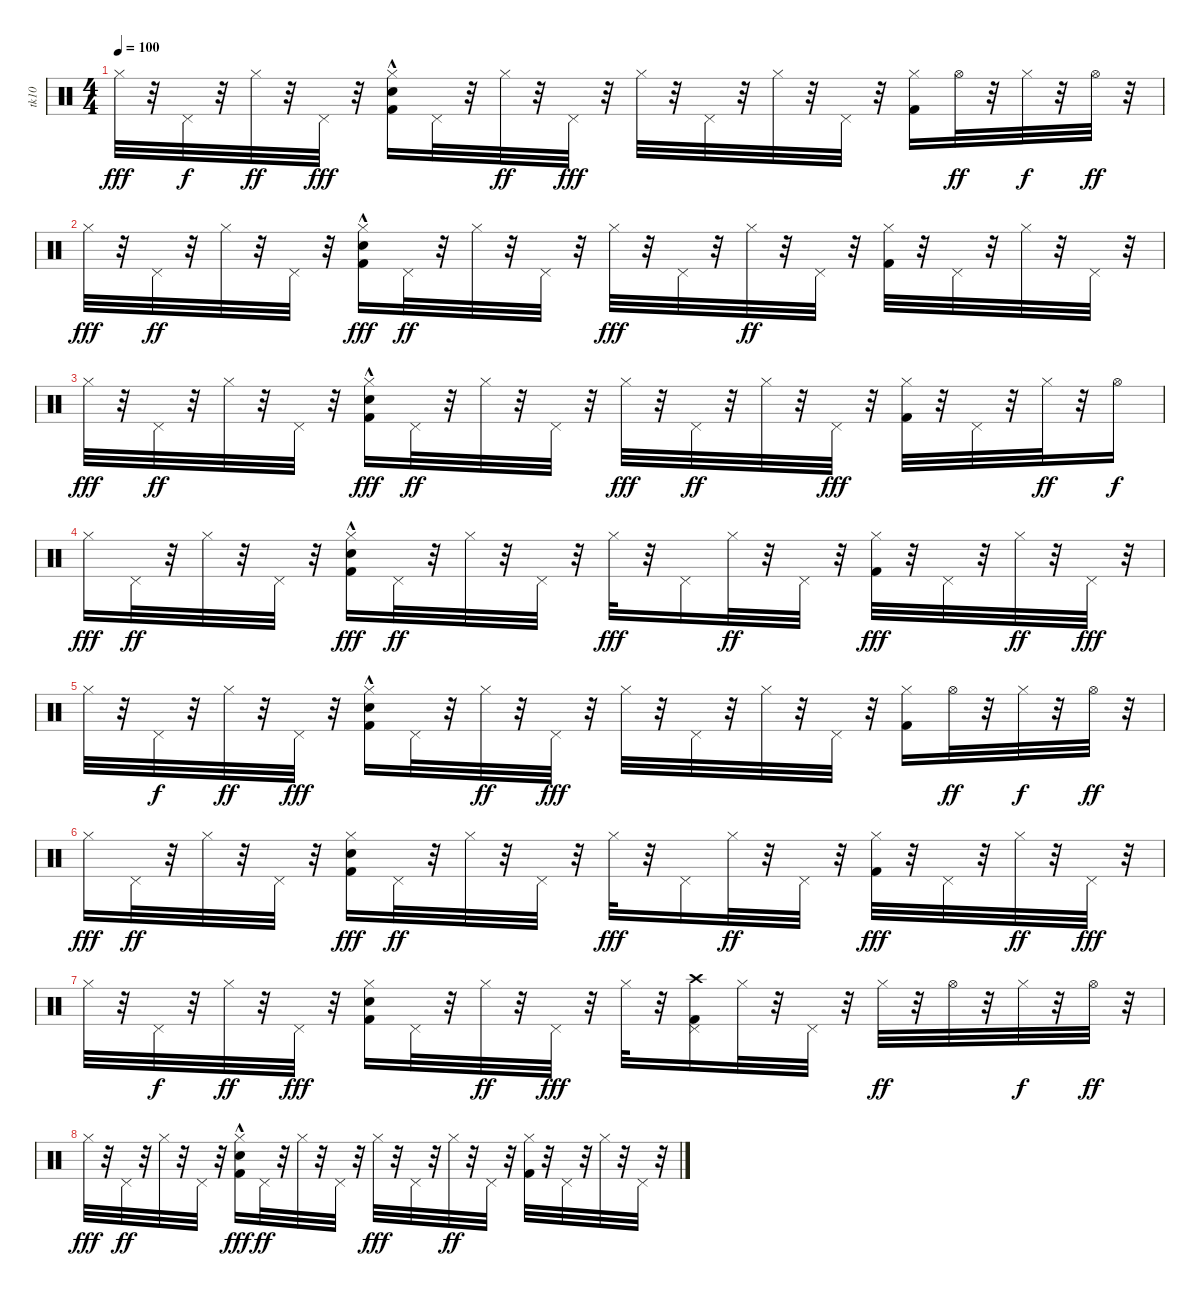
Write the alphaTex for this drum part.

\track ("tk10" "tk10") {instrument percussion}
\staff {score}
\articulation defaults
\ts (4 4)
\tempo 100
\clef neutral
\ks c "Hi-Hat (closed)".32{dy fff}
r.32 "Pedal Hi-Hat (hit)".32{dy f} r.32 "Hi-Hat (closed)".32{dy ff} r.32 "Pedal Hi-Hat (hit)".32{dy fff} r.32 ("Kick (hit) 2" "Hi-Hat (closed)" "Snare (hit) 2"{hac}).16 "Pedal Hi-Hat (hit)".32 r.32 "Hi-Hat (closed)".32{dy ff} r.32 "Pedal Hi-Hat (hit)".32{dy fff} r.32 "Hi-Hat (closed)".32 r.32 "Pedal Hi-Hat (hit)".32 r.32 "Hi-Hat (closed)".32 r.32 "Pedal Hi-Hat (hit)".32 r.32 ("Hi-Hat (closed)" "Kick (hit) 2").16 "Hi-Hat (open)".32{dy ff} r.32 "Hi-Hat (closed)".32{dy f} r.32 "Hi-Hat (open)".32{dy ff} r.32 |
"Hi-Hat (closed)".32{dy fff} r.32 "Pedal Hi-Hat (hit)".32{dy ff} r.32 "Hi-Hat (closed)".32 r.32 "Pedal Hi-Hat (hit)".32 r.32 ("Snare (hit) 2"{hac} "Kick (hit) 2"{hac} "Hi-Hat (closed)").16{dy fff} "Pedal Hi-Hat (hit)".32{dy ff} r.32 "Hi-Hat (closed)".32 r.32 "Pedal Hi-Hat (hit)".32 r.32 "Hi-Hat (closed)".32{dy fff} r.32 "Pedal Hi-Hat (hit)".32 r.32 "Hi-Hat (closed)".32{dy ff} r.32 "Pedal Hi-Hat (hit)".32 r.32 ("Kick (hit) 2" "Hi-Hat (closed)").32 r.32 "Pedal Hi-Hat (hit)".32 r.32 "Hi-Hat (closed)".32 r.32 "Pedal Hi-Hat (hit)".32 r.32 |
"Hi-Hat (closed)".32{dy fff} r.32 "Pedal Hi-Hat (hit)".32{dy ff} r.32 "Hi-Hat (closed)".32 r.32 "Pedal Hi-Hat (hit)".32 r.32 ("Kick (hit) 2" "Hi-Hat (closed)" "Snare (hit) 2"{hac}).16{dy fff} "Pedal Hi-Hat (hit)".32{dy ff} r.32 "Hi-Hat (closed)".32 r.32 "Pedal Hi-Hat (hit)".32 r.32 "Hi-Hat (closed)".32{dy fff} r.32 "Pedal Hi-Hat (hit)".32{dy ff} r.32 "Hi-Hat (closed)".32 r.32 "Pedal Hi-Hat (hit)".32{dy fff} r.32 ("Kick (hit) 2" "Hi-Hat (closed)").32 r.32 "Pedal Hi-Hat (hit)".32 r.32 "Hi-Hat (closed)".32{dy ff} r.32 "Hi-Hat (open)".16{dy f} |
"Hi-Hat (closed)".16{dy fff} "Pedal Hi-Hat (hit)".32{dy ff} r.32 "Hi-Hat (closed)".32 r.32 "Pedal Hi-Hat (hit)".32 r.32 ("Kick (hit) 2" "Hi-Hat (closed)" "Snare (hit) 2"{hac}).16{dy fff} "Pedal Hi-Hat (hit)".32{dy ff} r.32 "Hi-Hat (closed)".32 r.32 "Pedal Hi-Hat (hit)".32 r.32 "Hi-Hat (closed)".32{dy fff} r.32 "Pedal Hi-Hat (hit)".16 "Hi-Hat (closed)".32{dy ff} r.32 "Pedal Hi-Hat (hit)".32 r.32 ("Hi-Hat (closed)" "Kick (hit) 2").32{dy fff} r.32 "Pedal Hi-Hat (hit)".32 r.32 "Hi-Hat (closed)".32{dy ff} r.32 "Pedal Hi-Hat (hit)".32{dy fff} r.32 |
"Hi-Hat (closed)".32 r.32 "Pedal Hi-Hat (hit)".32{dy f} r.32 "Hi-Hat (closed)".32{dy ff} r.32 "Pedal Hi-Hat (hit)".32{dy fff} r.32 ("Kick (hit) 2" "Hi-Hat (closed)" "Snare (hit) 2"{hac}).16 "Pedal Hi-Hat (hit)".32 r.32 "Hi-Hat (closed)".32{dy ff} r.32 "Pedal Hi-Hat (hit)".32{dy fff} r.32 "Hi-Hat (closed)".32 r.32 "Pedal Hi-Hat (hit)".32 r.32 "Hi-Hat (closed)".32 r.32 "Pedal Hi-Hat (hit)".32 r.32 ("Hi-Hat (closed)" "Kick (hit) 2").16 "Hi-Hat (open)".32{dy ff} r.32 "Hi-Hat (closed)".32{dy f} r.32 "Hi-Hat (open)".32{dy ff} r.32 |
"Hi-Hat (closed)".16{dy fff} "Pedal Hi-Hat (hit)".32{dy ff} r.32 "Hi-Hat (closed)".32 r.32 "Pedal Hi-Hat (hit)".32 r.32 ("Kick (hit) 2" "Hi-Hat (closed)" "Snare (hit) 2").16{dy fff} "Pedal Hi-Hat (hit)".32{dy ff} r.32 "Hi-Hat (closed)".32 r.32 "Pedal Hi-Hat (hit)".32 r.32 "Hi-Hat (closed)".32{dy fff} r.32 "Pedal Hi-Hat (hit)".16 "Hi-Hat (closed)".32{dy ff} r.32 "Pedal Hi-Hat (hit)".32 r.32 ("Hi-Hat (closed)" "Kick (hit) 2").32{dy fff} r.32 "Pedal Hi-Hat (hit)".32 r.32 "Hi-Hat (closed)".32{dy ff} r.32 "Pedal Hi-Hat (hit)".32{dy fff} r.32 |
"Hi-Hat (closed)".32 r.32 "Pedal Hi-Hat (hit)".32{dy f} r.32 "Hi-Hat (closed)".32{dy ff} r.32 "Pedal Hi-Hat (hit)".32{dy fff} r.32 ("Kick (hit) 2" "Hi-Hat (closed)" "Snare (hit) 2").16 "Pedal Hi-Hat (hit)".32 r.32 "Hi-Hat (closed)".32{dy ff} r.32 "Pedal Hi-Hat (hit)".32{dy fff} r.32 "Hi-Hat (closed)".32 r.32 ("Crash high (hit)" "Pedal Hi-Hat (hit)" "Kick (hit) 2").16 "Hi-Hat (closed)".32 r.32 "Pedal Hi-Hat (hit)".32 r.32 "Hi-Hat (closed)".32{dy ff} r.32 "Hi-Hat (open)".32 r.32 "Hi-Hat (closed)".32{dy f} r.32 "Hi-Hat (open)".32{dy ff} r.32 |
"Hi-Hat (closed)".32{dy fff} r.32 "Pedal Hi-Hat (hit)".32{dy ff} r.32 "Hi-Hat (closed)".32 r.32 "Pedal Hi-Hat (hit)".32 r.32 ("Kick (hit) 2"{hac} "Hi-Hat (closed)" "Snare (hit) 2"{hac}).16{dy fff} "Pedal Hi-Hat (hit)".32{dy ff} r.32 "Hi-Hat (closed)".32 r.32 "Pedal Hi-Hat (hit)".32 r.32 "Hi-Hat (closed)".32{dy fff} r.32 "Pedal Hi-Hat (hit)".32 r.32 "Hi-Hat (closed)".32{dy ff} r.32 "Pedal Hi-Hat (hit)".32 r.32 ("Kick (hit) 2" "Hi-Hat (closed)").32 r.32 "Pedal Hi-Hat (hit)".32 r.32 "Hi-Hat (closed)".32 r.32 "Pedal Hi-Hat (hit)".32 r.32
